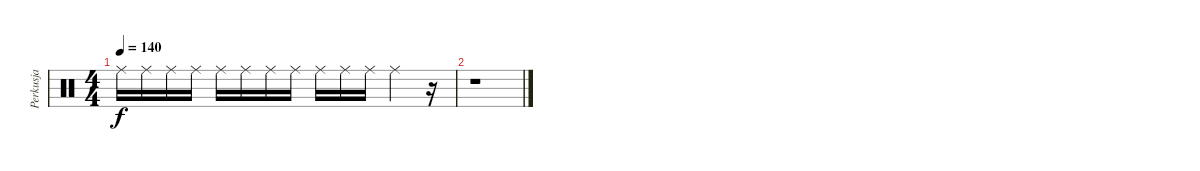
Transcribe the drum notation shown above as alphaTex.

\track ("Perkusja" "Perkusja") {instrument percussion}
\staff {score}
\articulation defaults
\ts (4 4)
\tempo 140
\clef neutral
\ks c "Ride (middle)".16{dy f} "Ride (middle)".16 "Ride (middle)".16 "Ride (middle)".16 "Ride (middle)".16 "Ride (middle)".16 "Ride (middle)".16 "Ride (middle)".16 "Ride (middle)".16 "Ride (middle)".16 "Ride (middle)".16 "Ride (middle)".4
r.16 |
r.1
